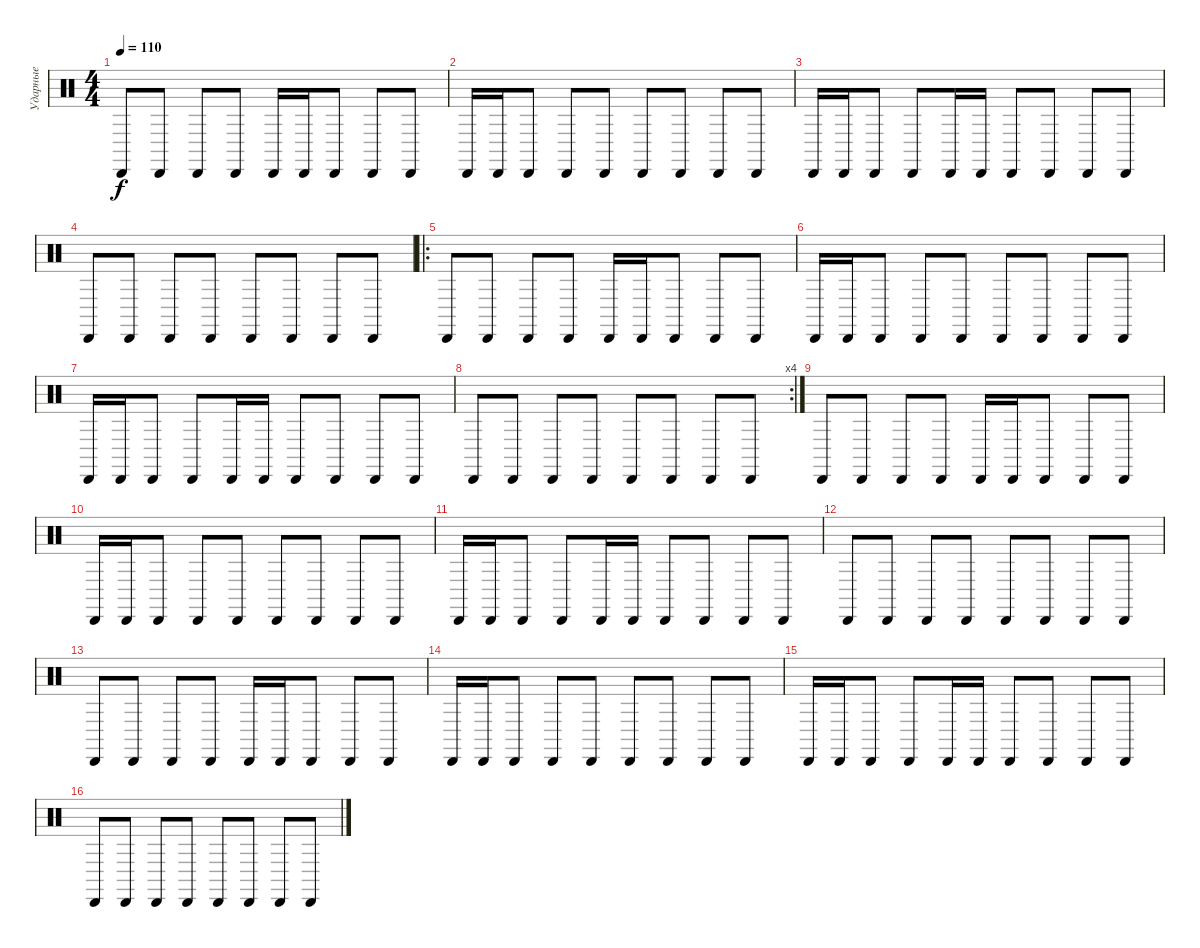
\track ("Ударные" "Ударные") {instrument percussion}
\staff {score}
\articulation defaults
\ts (4 4)
\tempo 110
\clef neutral
\ks c "Cabasa (hit)".8{dy f} "Cabasa (hit)".8 "Cabasa (hit)".8 "Cabasa (hit)".8 "Cabasa (hit)".16 "Cabasa (hit)".16 "Cabasa (hit)".8 "Cabasa (hit)".8 "Cabasa (hit)".8
|
"Cabasa (hit)".16 "Cabasa (hit)".16 "Cabasa (hit)".8 "Cabasa (hit)".8 "Cabasa (hit)".8 "Cabasa (hit)".8 "Cabasa (hit)".8 "Cabasa (hit)".8 "Cabasa (hit)".8 |
"Cabasa (hit)".16 "Cabasa (hit)".16 "Cabasa (hit)".8 "Cabasa (hit)".8 "Cabasa (hit)".16 "Cabasa (hit)".16 "Cabasa (hit)".8 "Cabasa (hit)".8 "Cabasa (hit)".8 "Cabasa (hit)".8 |
"Cabasa (hit)".8 "Cabasa (hit)".8 "Cabasa (hit)".8 "Cabasa (hit)".8 "Cabasa (hit)".8 "Cabasa (hit)".8 "Cabasa (hit)".8 "Cabasa (hit)".8 |
\ro "Cabasa (hit)".8 "Cabasa (hit)".8 "Cabasa (hit)".8 "Cabasa (hit)".8 "Cabasa (hit)".16 "Cabasa (hit)".16 "Cabasa (hit)".8 "Cabasa (hit)".8 "Cabasa (hit)".8
|
"Cabasa (hit)".16 "Cabasa (hit)".16 "Cabasa (hit)".8 "Cabasa (hit)".8 "Cabasa (hit)".8 "Cabasa (hit)".8 "Cabasa (hit)".8 "Cabasa (hit)".8 "Cabasa (hit)".8 |
"Cabasa (hit)".16 "Cabasa (hit)".16 "Cabasa (hit)".8 "Cabasa (hit)".8 "Cabasa (hit)".16 "Cabasa (hit)".16 "Cabasa (hit)".8 "Cabasa (hit)".8 "Cabasa (hit)".8 "Cabasa (hit)".8 |
\rc 4 "Cabasa (hit)".8 "Cabasa (hit)".8 "Cabasa (hit)".8 "Cabasa (hit)".8 "Cabasa (hit)".8 "Cabasa (hit)".8 "Cabasa (hit)".8 "Cabasa (hit)".8
|
"Cabasa (hit)".8 "Cabasa (hit)".8 "Cabasa (hit)".8 "Cabasa (hit)".8 "Cabasa (hit)".16 "Cabasa (hit)".16 "Cabasa (hit)".8 "Cabasa (hit)".8 "Cabasa (hit)".8 |
"Cabasa (hit)".16 "Cabasa (hit)".16 "Cabasa (hit)".8 "Cabasa (hit)".8 "Cabasa (hit)".8 "Cabasa (hit)".8 "Cabasa (hit)".8 "Cabasa (hit)".8 "Cabasa (hit)".8 |
"Cabasa (hit)".16 "Cabasa (hit)".16 "Cabasa (hit)".8 "Cabasa (hit)".8 "Cabasa (hit)".16 "Cabasa (hit)".16 "Cabasa (hit)".8 "Cabasa (hit)".8 "Cabasa (hit)".8 "Cabasa (hit)".8 |
"Cabasa (hit)".8 "Cabasa (hit)".8 "Cabasa (hit)".8 "Cabasa (hit)".8 "Cabasa (hit)".8 "Cabasa (hit)".8 "Cabasa (hit)".8 "Cabasa (hit)".8 |
"Cabasa (hit)".8 "Cabasa (hit)".8 "Cabasa (hit)".8 "Cabasa (hit)".8 "Cabasa (hit)".16 "Cabasa (hit)".16 "Cabasa (hit)".8 "Cabasa (hit)".8 "Cabasa (hit)".8 |
"Cabasa (hit)".16 "Cabasa (hit)".16 "Cabasa (hit)".8 "Cabasa (hit)".8 "Cabasa (hit)".8 "Cabasa (hit)".8 "Cabasa (hit)".8 "Cabasa (hit)".8 "Cabasa (hit)".8 |
"Cabasa (hit)".16 "Cabasa (hit)".16 "Cabasa (hit)".8 "Cabasa (hit)".8 "Cabasa (hit)".16 "Cabasa (hit)".16 "Cabasa (hit)".8 "Cabasa (hit)".8 "Cabasa (hit)".8 "Cabasa (hit)".8 |
"Cabasa (hit)".8 "Cabasa (hit)".8 "Cabasa (hit)".8 "Cabasa (hit)".8 "Cabasa (hit)".8 "Cabasa (hit)".8 "Cabasa (hit)".8 "Cabasa (hit)".8
